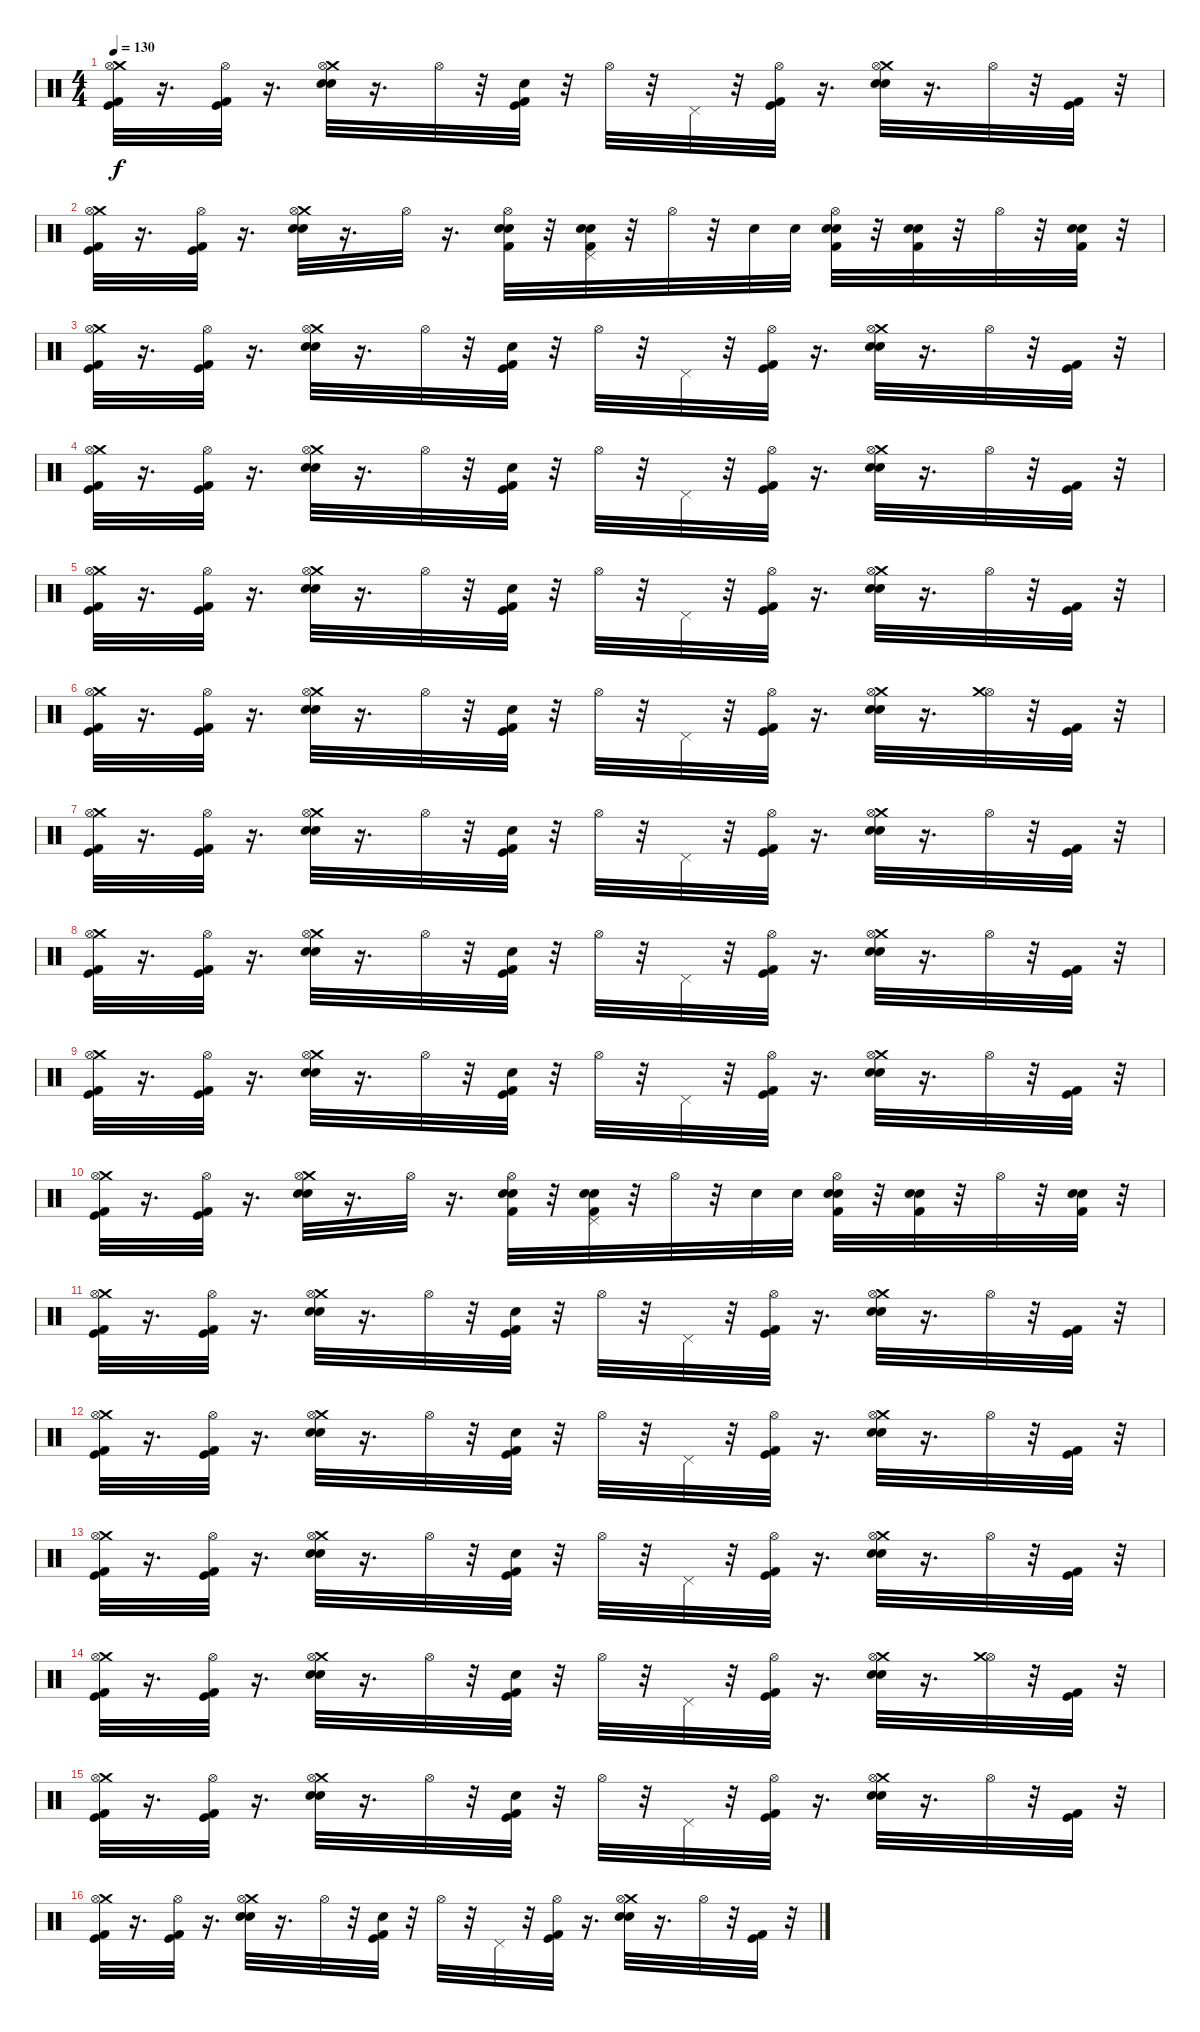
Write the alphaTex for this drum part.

\track "" {instrument percussion}
\staff {score}
\articulation defaults
\ts (4 4)
\tempo 130
\clef neutral
\ks c
("Kick (hit) 2" "Kick (hit)" "Crash medium (hit)" "Hi-Hat (open)").32{dy f} r.16{d} ("Kick (hit) 2" "Kick (hit)" "Hi-Hat (open)").32 r.16{d} ("Snare (hit) 2" "Electric Snare (hit)" "Crash medium (hit)" "Hi-Hat (open)").32 r.16{d} "Hi-Hat (open)".32 r.32 ("Kick (hit) 2" "Kick (hit)" "Electric Snare (hit)").32 r.32 "Hi-Hat (open)".32 r.32 "Pedal Hi-Hat (hit)".32 r.32 ("Kick (hit) 2" "Kick (hit)" "Hi-Hat (open)").32 r.16{d} ("Snare (hit) 2" "Electric Snare (hit)" "Crash medium (hit)" "Hi-Hat (open)").32 r.16{d} "Hi-Hat (open)".32 r.32 ("Kick (hit) 2" "Kick (hit)").32 r.32 |
("Kick (hit) 2" "Kick (hit)" "Crash medium (hit)" "Hi-Hat (open)").32 r.16{d} ("Kick (hit) 2" "Kick (hit)" "Hi-Hat (open)").32 r.16{d} ("Snare (hit) 2" "Electric Snare (hit)" "Crash medium (hit)" "Hi-Hat (open)").32 r.16{d} "Hi-Hat (open)".32 r.16{d} ("Hi-Hat (open)" "Electric Snare (hit)" "Snare (hit) 2" "Kick (hit) 2").32 r.32 ("Electric Snare (hit)" "Snare (hit) 2" "Kick (hit) 2" "Pedal Hi-Hat (hit)").32 r.32 "Hi-Hat (open)".32 r.32 "Electric Snare (hit)".32 "Electric Snare (hit)".32 ("Hi-Hat (open)" "Snare (hit) 2" "Electric Snare (hit)" "Kick (hit) 2").32 r.32 ("Electric Snare (hit)" "Snare (hit) 2" "Kick (hit) 2").32 r.32 "Hi-Hat (open)".32 r.32 ("Electric Snare (hit)" "Snare (hit) 2" "Kick (hit) 2").32 r.32 |
("Kick (hit) 2" "Kick (hit)" "Crash medium (hit)" "Hi-Hat (open)").32 r.16{d} ("Kick (hit) 2" "Kick (hit)" "Hi-Hat (open)").32 r.16{d} ("Snare (hit) 2" "Electric Snare (hit)" "Crash medium (hit)" "Hi-Hat (open)").32 r.16{d} "Hi-Hat (open)".32 r.32 ("Kick (hit) 2" "Kick (hit)" "Electric Snare (hit)").32 r.32 "Hi-Hat (open)".32 r.32 "Pedal Hi-Hat (hit)".32 r.32 ("Kick (hit) 2" "Kick (hit)" "Hi-Hat (open)").32 r.16{d} ("Snare (hit) 2" "Electric Snare (hit)" "Crash medium (hit)" "Hi-Hat (open)").32 r.16{d} "Hi-Hat (open)".32 r.32 ("Kick (hit) 2" "Kick (hit)").32 r.32 |
("Kick (hit) 2" "Kick (hit)" "Crash medium (hit)" "Hi-Hat (open)").32 r.16{d} ("Kick (hit) 2" "Kick (hit)" "Hi-Hat (open)").32 r.16{d} ("Snare (hit) 2" "Electric Snare (hit)" "Crash medium (hit)" "Hi-Hat (open)").32 r.16{d} "Hi-Hat (open)".32 r.32 ("Kick (hit) 2" "Kick (hit)" "Electric Snare (hit)").32 r.32 "Hi-Hat (open)".32 r.32 "Pedal Hi-Hat (hit)".32 r.32 ("Kick (hit) 2" "Kick (hit)" "Hi-Hat (open)").32 r.16{d} ("Snare (hit) 2" "Electric Snare (hit)" "Crash medium (hit)" "Hi-Hat (open)").32 r.16{d} "Hi-Hat (open)".32 r.32 ("Kick (hit) 2" "Kick (hit)").32 r.32 |
("Kick (hit) 2" "Kick (hit)" "Crash medium (hit)" "Hi-Hat (open)").32 r.16{d} ("Kick (hit) 2" "Kick (hit)" "Hi-Hat (open)").32 r.16{d} ("Snare (hit) 2" "Electric Snare (hit)" "Crash medium (hit)" "Hi-Hat (open)").32 r.16{d} "Hi-Hat (open)".32 r.32 ("Kick (hit) 2" "Kick (hit)" "Electric Snare (hit)").32 r.32 "Hi-Hat (open)".32 r.32 "Pedal Hi-Hat (hit)".32 r.32 ("Kick (hit) 2" "Kick (hit)" "Hi-Hat (open)").32 r.16{d} ("Snare (hit) 2" "Electric Snare (hit)" "Crash medium (hit)" "Hi-Hat (open)").32 r.16{d} "Hi-Hat (open)".32 r.32 ("Kick (hit) 2" "Kick (hit)").32 r.32 |
("Kick (hit) 2" "Kick (hit)" "Crash medium (hit)" "Hi-Hat (open)").32 r.16{d} ("Kick (hit) 2" "Kick (hit)" "Hi-Hat (open)").32 r.16{d} ("Snare (hit) 2" "Electric Snare (hit)" "Crash medium (hit)" "Hi-Hat (open)").32 r.16{d} "Hi-Hat (open)".32 r.32 ("Kick (hit) 2" "Kick (hit)" "Electric Snare (hit)").32 r.32 "Hi-Hat (open)".32 r.32 "Pedal Hi-Hat (hit)".32 r.32 ("Kick (hit) 2" "Kick (hit)" "Hi-Hat (open)").32 r.16{d} ("Snare (hit) 2" "Electric Snare (hit)" "Crash medium (hit)" "Hi-Hat (open)").32 r.16{d} ("Hi-Hat (open)" "Crash medium (hit)").32 r.32 ("Kick (hit) 2" "Kick (hit)").32 r.32 |
("Kick (hit) 2" "Kick (hit)" "Crash medium (hit)" "Hi-Hat (open)").32 r.16{d} ("Kick (hit) 2" "Kick (hit)" "Hi-Hat (open)").32 r.16{d} ("Snare (hit) 2" "Electric Snare (hit)" "Crash medium (hit)" "Hi-Hat (open)").32 r.16{d} "Hi-Hat (open)".32 r.32 ("Kick (hit) 2" "Kick (hit)" "Electric Snare (hit)").32 r.32 "Hi-Hat (open)".32 r.32 "Pedal Hi-Hat (hit)".32 r.32 ("Kick (hit) 2" "Kick (hit)" "Hi-Hat (open)").32 r.16{d} ("Snare (hit) 2" "Electric Snare (hit)" "Crash medium (hit)" "Hi-Hat (open)").32 r.16{d} "Hi-Hat (open)".32 r.32 ("Kick (hit) 2" "Kick (hit)").32 r.32 |
("Kick (hit) 2" "Kick (hit)" "Crash medium (hit)" "Hi-Hat (open)").32 r.16{d} ("Kick (hit) 2" "Kick (hit)" "Hi-Hat (open)").32 r.16{d} ("Snare (hit) 2" "Electric Snare (hit)" "Crash medium (hit)" "Hi-Hat (open)").32 r.16{d} "Hi-Hat (open)".32 r.32 ("Kick (hit) 2" "Kick (hit)" "Electric Snare (hit)").32 r.32 "Hi-Hat (open)".32 r.32 "Pedal Hi-Hat (hit)".32 r.32 ("Kick (hit) 2" "Kick (hit)" "Hi-Hat (open)").32 r.16{d} ("Snare (hit) 2" "Electric Snare (hit)" "Crash medium (hit)" "Hi-Hat (open)").32 r.16{d} "Hi-Hat (open)".32 r.32 ("Kick (hit) 2" "Kick (hit)").32 r.32 |
("Kick (hit) 2" "Kick (hit)" "Crash medium (hit)" "Hi-Hat (open)").32 r.16{d} ("Kick (hit) 2" "Kick (hit)" "Hi-Hat (open)").32 r.16{d} ("Snare (hit) 2" "Electric Snare (hit)" "Crash medium (hit)" "Hi-Hat (open)").32 r.16{d} "Hi-Hat (open)".32 r.32 ("Kick (hit) 2" "Kick (hit)" "Electric Snare (hit)").32 r.32 "Hi-Hat (open)".32 r.32 "Pedal Hi-Hat (hit)".32 r.32 ("Kick (hit) 2" "Kick (hit)" "Hi-Hat (open)").32 r.16{d} ("Snare (hit) 2" "Electric Snare (hit)" "Crash medium (hit)" "Hi-Hat (open)").32 r.16{d} "Hi-Hat (open)".32 r.32 ("Kick (hit) 2" "Kick (hit)").32 r.32 |
("Kick (hit) 2" "Kick (hit)" "Crash medium (hit)" "Hi-Hat (open)").32 r.16{d} ("Kick (hit) 2" "Kick (hit)" "Hi-Hat (open)").32 r.16{d} ("Snare (hit) 2" "Electric Snare (hit)" "Crash medium (hit)" "Hi-Hat (open)").32 r.16{d} "Hi-Hat (open)".32 r.16{d} ("Hi-Hat (open)" "Electric Snare (hit)" "Snare (hit) 2" "Kick (hit) 2").32 r.32 ("Electric Snare (hit)" "Snare (hit) 2" "Kick (hit) 2" "Pedal Hi-Hat (hit)").32 r.32 "Hi-Hat (open)".32 r.32 "Electric Snare (hit)".32 "Electric Snare (hit)".32 ("Hi-Hat (open)" "Snare (hit) 2" "Electric Snare (hit)" "Kick (hit) 2").32 r.32 ("Electric Snare (hit)" "Snare (hit) 2" "Kick (hit) 2").32 r.32 "Hi-Hat (open)".32 r.32 ("Electric Snare (hit)" "Snare (hit) 2" "Kick (hit) 2").32 r.32 |
("Kick (hit) 2" "Kick (hit)" "Crash medium (hit)" "Hi-Hat (open)").32 r.16{d} ("Kick (hit) 2" "Kick (hit)" "Hi-Hat (open)").32 r.16{d} ("Snare (hit) 2" "Electric Snare (hit)" "Crash medium (hit)" "Hi-Hat (open)").32 r.16{d} "Hi-Hat (open)".32 r.32 ("Kick (hit) 2" "Kick (hit)" "Electric Snare (hit)").32 r.32 "Hi-Hat (open)".32 r.32 "Pedal Hi-Hat (hit)".32 r.32 ("Kick (hit) 2" "Kick (hit)" "Hi-Hat (open)").32 r.16{d} ("Snare (hit) 2" "Electric Snare (hit)" "Crash medium (hit)" "Hi-Hat (open)").32 r.16{d} "Hi-Hat (open)".32 r.32 ("Kick (hit) 2" "Kick (hit)").32 r.32 |
("Kick (hit) 2" "Kick (hit)" "Crash medium (hit)" "Hi-Hat (open)").32 r.16{d} ("Kick (hit) 2" "Kick (hit)" "Hi-Hat (open)").32 r.16{d} ("Snare (hit) 2" "Electric Snare (hit)" "Crash medium (hit)" "Hi-Hat (open)").32 r.16{d} "Hi-Hat (open)".32 r.32 ("Kick (hit) 2" "Kick (hit)" "Electric Snare (hit)").32 r.32 "Hi-Hat (open)".32 r.32 "Pedal Hi-Hat (hit)".32 r.32 ("Kick (hit) 2" "Kick (hit)" "Hi-Hat (open)").32 r.16{d} ("Snare (hit) 2" "Electric Snare (hit)" "Crash medium (hit)" "Hi-Hat (open)").32 r.16{d} "Hi-Hat (open)".32 r.32 ("Kick (hit) 2" "Kick (hit)").32 r.32 |
("Kick (hit) 2" "Kick (hit)" "Crash medium (hit)" "Hi-Hat (open)").32 r.16{d} ("Kick (hit) 2" "Kick (hit)" "Hi-Hat (open)").32 r.16{d} ("Snare (hit) 2" "Electric Snare (hit)" "Crash medium (hit)" "Hi-Hat (open)").32 r.16{d} "Hi-Hat (open)".32 r.32 ("Kick (hit) 2" "Kick (hit)" "Electric Snare (hit)").32 r.32 "Hi-Hat (open)".32 r.32 "Pedal Hi-Hat (hit)".32 r.32 ("Kick (hit) 2" "Kick (hit)" "Hi-Hat (open)").32 r.16{d} ("Snare (hit) 2" "Electric Snare (hit)" "Crash medium (hit)" "Hi-Hat (open)").32 r.16{d} "Hi-Hat (open)".32 r.32 ("Kick (hit) 2" "Kick (hit)").32 r.32 |
("Kick (hit) 2" "Kick (hit)" "Crash medium (hit)" "Hi-Hat (open)").32 r.16{d} ("Kick (hit) 2" "Kick (hit)" "Hi-Hat (open)").32 r.16{d} ("Snare (hit) 2" "Electric Snare (hit)" "Crash medium (hit)" "Hi-Hat (open)").32 r.16{d} "Hi-Hat (open)".32 r.32 ("Kick (hit) 2" "Kick (hit)" "Electric Snare (hit)").32 r.32 "Hi-Hat (open)".32 r.32 "Pedal Hi-Hat (hit)".32 r.32 ("Kick (hit) 2" "Kick (hit)" "Hi-Hat (open)").32 r.16{d} ("Snare (hit) 2" "Electric Snare (hit)" "Crash medium (hit)" "Hi-Hat (open)").32 r.16{d} ("Hi-Hat (open)" "Crash medium (hit)").32 r.32 ("Kick (hit) 2" "Kick (hit)").32 r.32 |
("Kick (hit) 2" "Kick (hit)" "Crash medium (hit)" "Hi-Hat (open)").32 r.16{d} ("Kick (hit) 2" "Kick (hit)" "Hi-Hat (open)").32 r.16{d} ("Snare (hit) 2" "Electric Snare (hit)" "Crash medium (hit)" "Hi-Hat (open)").32 r.16{d} "Hi-Hat (open)".32 r.32 ("Kick (hit) 2" "Kick (hit)" "Electric Snare (hit)").32 r.32 "Hi-Hat (open)".32 r.32 "Pedal Hi-Hat (hit)".32 r.32 ("Kick (hit) 2" "Kick (hit)" "Hi-Hat (open)").32 r.16{d} ("Snare (hit) 2" "Electric Snare (hit)" "Crash medium (hit)" "Hi-Hat (open)").32 r.16{d} "Hi-Hat (open)".32 r.32 ("Kick (hit) 2" "Kick (hit)").32 r.32 |
("Kick (hit) 2" "Kick (hit)" "Crash medium (hit)" "Hi-Hat (open)").32 r.16{d} ("Kick (hit) 2" "Kick (hit)" "Hi-Hat (open)").32 r.16{d} ("Snare (hit) 2" "Electric Snare (hit)" "Crash medium (hit)" "Hi-Hat (open)").32 r.16{d} "Hi-Hat (open)".32 r.32 ("Kick (hit) 2" "Kick (hit)" "Electric Snare (hit)").32 r.32 "Hi-Hat (open)".32 r.32 "Pedal Hi-Hat (hit)".32 r.32 ("Kick (hit) 2" "Kick (hit)" "Hi-Hat (open)").32 r.16{d} ("Snare (hit) 2" "Electric Snare (hit)" "Crash medium (hit)" "Hi-Hat (open)").32 r.16{d} "Hi-Hat (open)".32 r.32 ("Kick (hit) 2" "Kick (hit)").32 r.32
